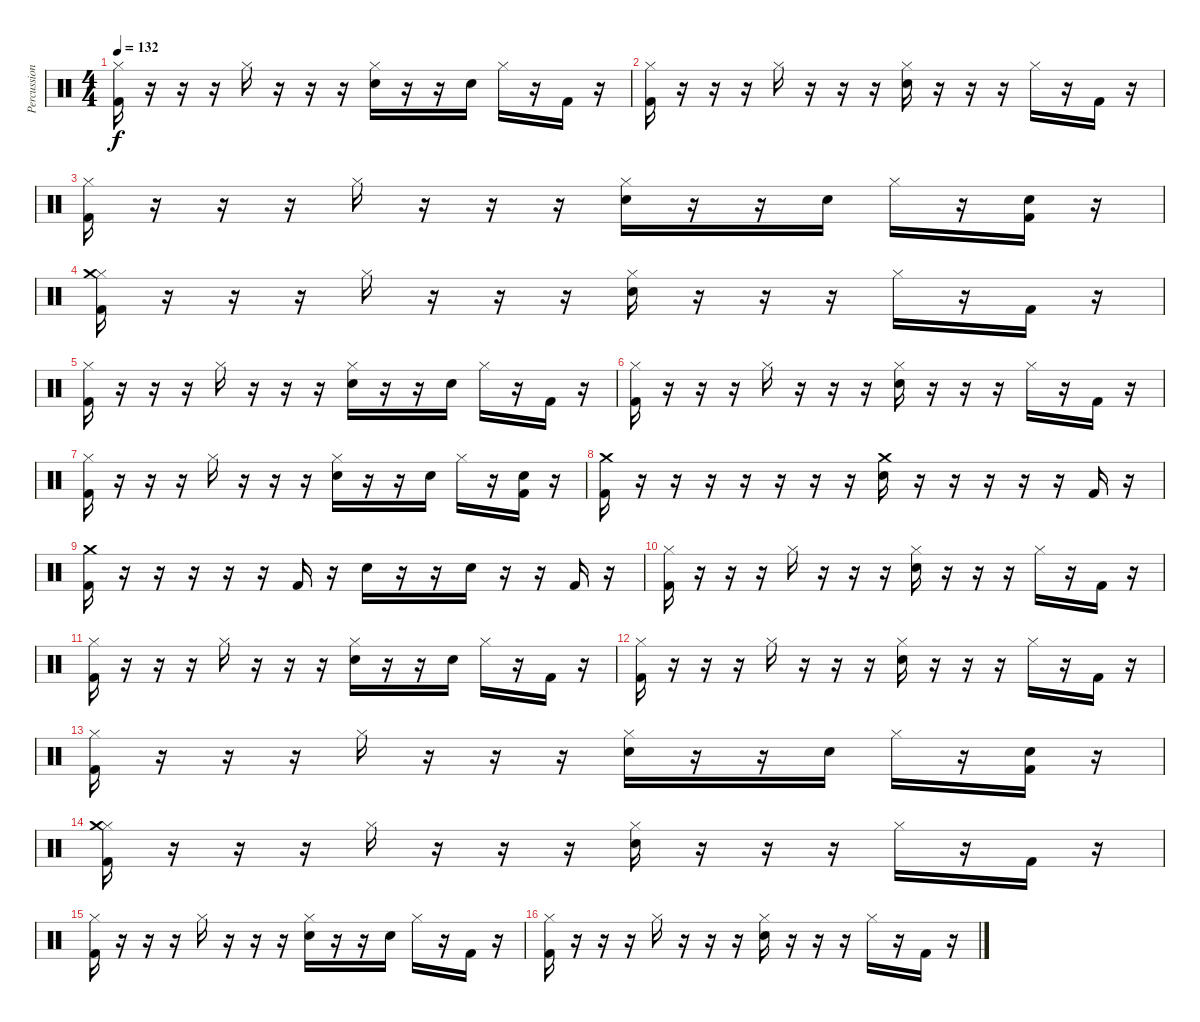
\track ("Percussion" "Percussion") {instrument percussion}
\staff {score}
\articulation defaults
\ts (4 4)
\tempo 132
\clef neutral
\ks c
("Hi-Hat (closed)" "Kick (hit) 2").16{dy f} r.16 r.16 r.16 "Hi-Hat (closed)".16 r.16 r.16 r.16 ("Hi-Hat (closed)" "Snare (hit) 2").16 r.16 r.16 "Snare (hit) 2".16 "Hi-Hat (closed)".16 r.16 "Kick (hit) 2".16 r.16 |
("Hi-Hat (closed)" "Kick (hit) 2").16 r.16 r.16 r.16 "Hi-Hat (closed)".16 r.16 r.16 r.16 ("Hi-Hat (closed)" "Snare (hit) 2").16 r.16 r.16 r.16 "Hi-Hat (closed)".16 r.16 "Kick (hit) 2".16 r.16 |
("Hi-Hat (closed)" "Kick (hit) 2").16 r.16 r.16 r.16 "Hi-Hat (closed)".16 r.16 r.16 r.16 ("Hi-Hat (closed)" "Snare (hit) 2").16 r.16 r.16 "Snare (hit) 2".16 "Hi-Hat (closed)".16 r.16 ("Snare (hit) 2" "Kick (hit) 2").16 r.16 |
("Hi-Hat (closed)" "Kick (hit) 2" "Crash medium (hit)").16 r.16 r.16 r.16 "Hi-Hat (closed)".16 r.16 r.16 r.16 ("Hi-Hat (closed)" "Snare (hit) 2").16 r.16 r.16 r.16 "Hi-Hat (closed)".16 r.16 "Kick (hit) 2".16 r.16 |
("Hi-Hat (closed)" "Kick (hit) 2").16 r.16 r.16 r.16 "Hi-Hat (closed)".16 r.16 r.16 r.16 ("Hi-Hat (closed)" "Snare (hit) 2").16 r.16 r.16 "Snare (hit) 2".16 "Hi-Hat (closed)".16 r.16 "Kick (hit) 2".16 r.16 |
("Hi-Hat (closed)" "Kick (hit) 2").16 r.16 r.16 r.16 "Hi-Hat (closed)".16 r.16 r.16 r.16 ("Hi-Hat (closed)" "Snare (hit) 2").16 r.16 r.16 r.16 "Hi-Hat (closed)".16 r.16 "Kick (hit) 2".16 r.16 |
("Hi-Hat (closed)" "Kick (hit) 2").16 r.16 r.16 r.16 "Hi-Hat (closed)".16 r.16 r.16 r.16 ("Hi-Hat (closed)" "Snare (hit) 2").16 r.16 r.16 "Snare (hit) 2".16 "Hi-Hat (closed)".16 r.16 ("Snare (hit) 2" "Kick (hit) 2").16 r.16 |
("Crash medium (hit)" "Kick (hit) 2").16 r.16 r.16 r.16 r.16 r.16 r.16 r.16 ("Crash medium (hit)" "Snare (hit) 2").16 r.16 r.16 r.16 r.16 r.16 "Kick (hit) 2".16 r.16 |
("Crash medium (hit)" "Kick (hit) 2").16 r.16 r.16 r.16 r.16 r.16 "Kick (hit) 2".16 r.16 "Snare (hit) 2".16 r.16 r.16 "Snare (hit) 2".16 r.16 r.16 "Kick (hit) 2".16 r.16 |
("Hi-Hat (closed)" "Kick (hit) 2").16 r.16 r.16 r.16 "Hi-Hat (closed)".16 r.16 r.16 r.16 ("Hi-Hat (closed)" "Snare (hit) 2").16 r.16 r.16 r.16 "Hi-Hat (closed)".16 r.16 "Kick (hit) 2".16 r.16 |
("Hi-Hat (closed)" "Kick (hit) 2").16 r.16 r.16 r.16 "Hi-Hat (closed)".16 r.16 r.16 r.16 ("Hi-Hat (closed)" "Snare (hit) 2").16 r.16 r.16 "Snare (hit) 2".16 "Hi-Hat (closed)".16 r.16 "Kick (hit) 2".16 r.16 |
("Hi-Hat (closed)" "Kick (hit) 2").16 r.16 r.16 r.16 "Hi-Hat (closed)".16 r.16 r.16 r.16 ("Hi-Hat (closed)" "Snare (hit) 2").16 r.16 r.16 r.16 "Hi-Hat (closed)".16 r.16 "Kick (hit) 2".16 r.16 |
("Hi-Hat (closed)" "Kick (hit) 2").16 r.16 r.16 r.16 "Hi-Hat (closed)".16 r.16 r.16 r.16 ("Hi-Hat (closed)" "Snare (hit) 2").16 r.16 r.16 "Snare (hit) 2".16 "Hi-Hat (closed)".16 r.16 ("Snare (hit) 2" "Kick (hit) 2").16 r.16 |
("Hi-Hat (closed)" "Kick (hit) 2" "Crash medium (hit)").16 r.16 r.16 r.16 "Hi-Hat (closed)".16 r.16 r.16 r.16 ("Hi-Hat (closed)" "Snare (hit) 2").16 r.16 r.16 r.16 "Hi-Hat (closed)".16 r.16 "Kick (hit) 2".16 r.16 |
("Hi-Hat (closed)" "Kick (hit) 2").16 r.16 r.16 r.16 "Hi-Hat (closed)".16 r.16 r.16 r.16 ("Hi-Hat (closed)" "Snare (hit) 2").16 r.16 r.16 "Snare (hit) 2".16 "Hi-Hat (closed)".16 r.16 "Kick (hit) 2".16 r.16 |
("Hi-Hat (closed)" "Kick (hit) 2").16 r.16 r.16 r.16 "Hi-Hat (closed)".16 r.16 r.16 r.16 ("Hi-Hat (closed)" "Snare (hit) 2").16 r.16 r.16 r.16 "Hi-Hat (closed)".16 r.16 "Kick (hit) 2".16 r.16
